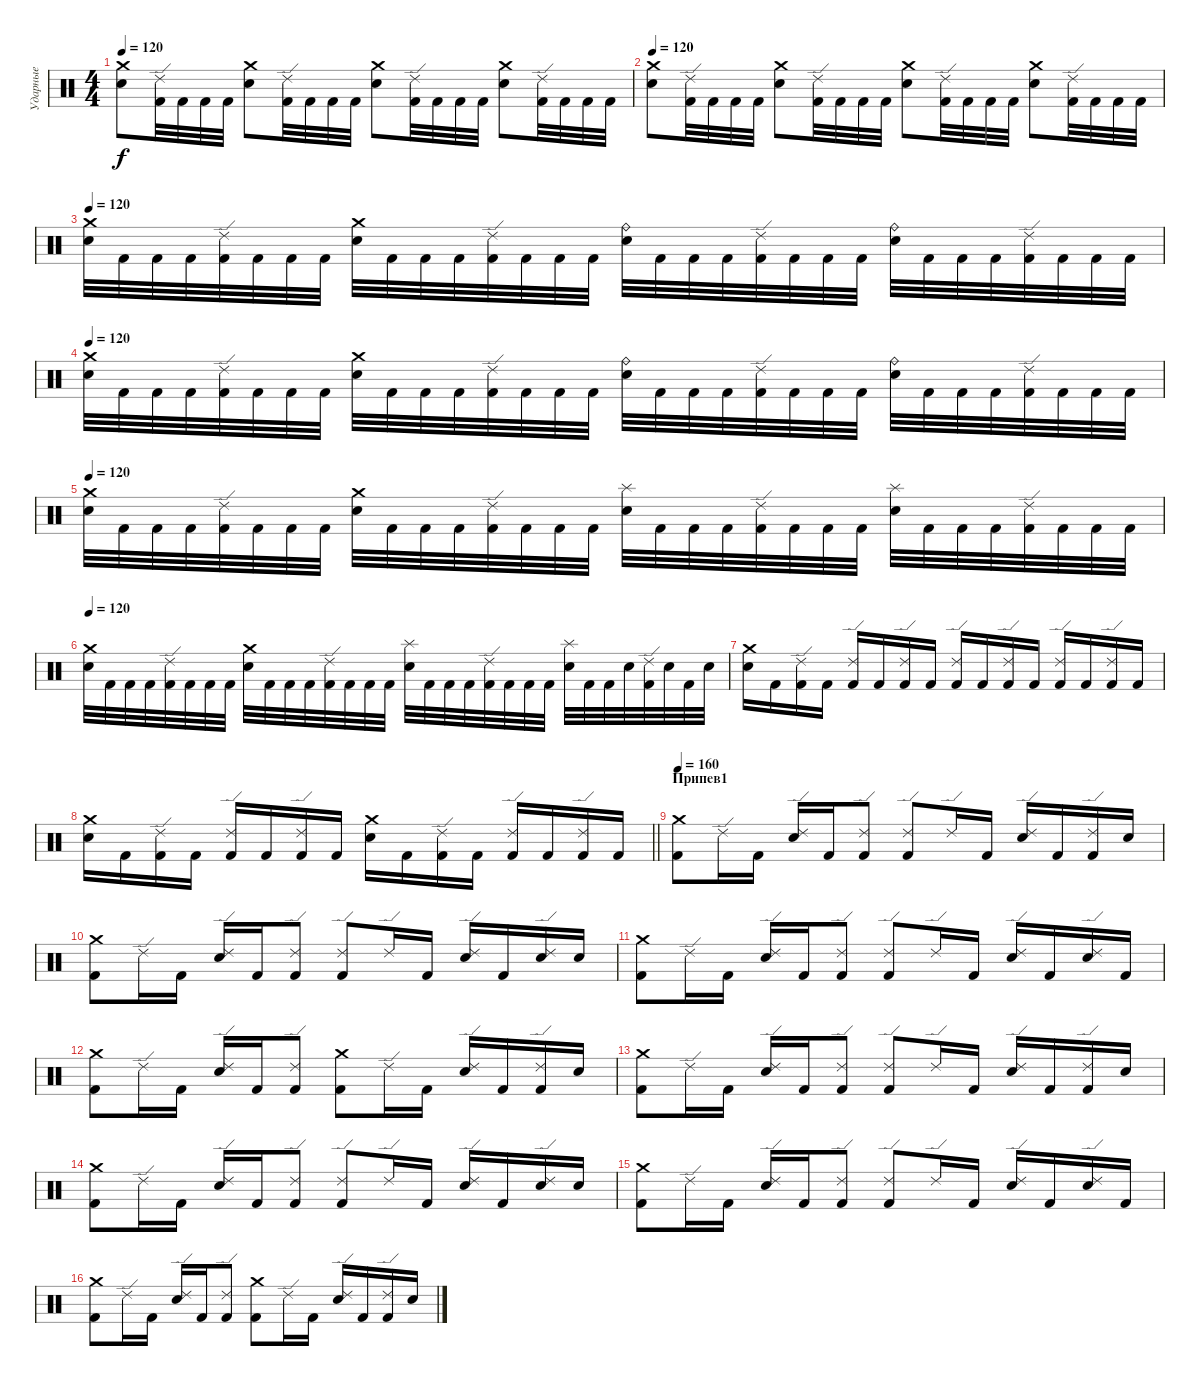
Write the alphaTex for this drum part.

\track ("Ударные" "Ударные") {instrument percussion}
\staff {score}
\articulation defaults
\ts (4 4)
\tempo 120
\clef neutral
\ks c
("Crash medium (hit)" "Electric Snare (hit)").8{dy f} ("Ride (edge) 2" "Kick (hit) 2").32 "Kick (hit) 2".32 "Kick (hit) 2".32 "Kick (hit) 2".32 ("Crash medium (hit)" "Electric Snare (hit)").8 ("Ride (edge) 2" "Kick (hit) 2").32 "Kick (hit) 2".32 "Kick (hit) 2".32 "Kick (hit) 2".32 ("Crash medium (hit)" "Electric Snare (hit)").8 ("Ride (edge) 2" "Kick (hit) 2").32 "Kick (hit) 2".32 "Kick (hit) 2".32 "Kick (hit) 2".32 ("Crash medium (hit)" "Electric Snare (hit)").8 ("Ride (edge) 2" "Kick (hit) 2").32 "Kick (hit) 2".32 "Kick (hit) 2".32 "Kick (hit) 2".32 |
\tempo 120
("Crash medium (hit)" "Electric Snare (hit)").8 ("Ride (edge) 2" "Kick (hit) 2").32 "Kick (hit) 2".32 "Kick (hit) 2".32 "Kick (hit) 2".32 ("Crash medium (hit)" "Electric Snare (hit)").8 ("Ride (edge) 2" "Kick (hit) 2").32 "Kick (hit) 2".32 "Kick (hit) 2".32 "Kick (hit) 2".32 ("Crash medium (hit)" "Electric Snare (hit)").8 ("Ride (edge) 2" "Kick (hit) 2").32 "Kick (hit) 2".32 "Kick (hit) 2".32 "Kick (hit) 2".32 ("Crash medium (hit)" "Electric Snare (hit)").8 ("Ride (edge) 2" "Kick (hit) 2").32 "Kick (hit) 2".32 "Kick (hit) 2".32 "Kick (hit) 2".32 |
\tempo 120
("Crash medium (hit)" "Electric Snare (hit)").32 "Kick (hit) 2".32 "Kick (hit) 2".32 "Kick (hit) 2".32 ("Ride (edge) 2" "Kick (hit) 2").32 "Kick (hit) 2".32 "Kick (hit) 2".32 "Kick (hit) 2".32 ("Crash medium (hit)" "Electric Snare (hit)").32 "Kick (hit) 2".32 "Kick (hit) 2".32 "Kick (hit) 2".32 ("Ride (edge) 2" "Kick (hit) 2").32 "Kick (hit) 2".32 "Kick (hit) 2".32 "Kick (hit) 2".32 ("Ride (bell)" "Electric Snare (hit)").32 "Kick (hit) 2".32 "Kick (hit) 2".32 "Kick (hit) 2".32 ("Ride (edge) 2" "Kick (hit) 2").32 "Kick (hit) 2".32 "Kick (hit) 2".32 "Kick (hit) 2".32 ("Ride (bell)" "Electric Snare (hit)").32 "Kick (hit) 2".32 "Kick (hit) 2".32 "Kick (hit) 2".32 ("Ride (edge) 2" "Kick (hit) 2").32 "Kick (hit) 2".32 "Kick (hit) 2".32 "Kick (hit) 2".32 |
\tempo 120
("Crash medium (hit)" "Electric Snare (hit)").32 "Kick (hit) 2".32 "Kick (hit) 2".32 "Kick (hit) 2".32 ("Ride (edge) 2" "Kick (hit) 2").32 "Kick (hit) 2".32 "Kick (hit) 2".32 "Kick (hit) 2".32 ("Crash medium (hit)" "Electric Snare (hit)").32 "Kick (hit) 2".32 "Kick (hit) 2".32 "Kick (hit) 2".32 ("Ride (edge) 2" "Kick (hit) 2").32 "Kick (hit) 2".32 "Kick (hit) 2".32 "Kick (hit) 2".32 ("Ride (bell)" "Electric Snare (hit)").32 "Kick (hit) 2".32 "Kick (hit) 2".32 "Kick (hit) 2".32 ("Ride (edge) 2" "Kick (hit) 2").32 "Kick (hit) 2".32 "Kick (hit) 2".32 "Kick (hit) 2".32 ("Ride (bell)" "Electric Snare (hit)").32 "Kick (hit) 2".32 "Kick (hit) 2".32 "Kick (hit) 2".32 ("Ride (edge) 2" "Kick (hit) 2").32 "Kick (hit) 2".32 "Kick (hit) 2".32 "Kick (hit) 2".32 |
\tempo 120
("Crash medium (hit)" "Electric Snare (hit)").32 "Kick (hit) 2".32 "Kick (hit) 2".32 "Kick (hit) 2".32 ("Ride (edge) 2" "Kick (hit) 2").32 "Kick (hit) 2".32 "Kick (hit) 2".32 "Kick (hit) 2".32 ("Crash medium (hit)" "Electric Snare (hit)").32 "Kick (hit) 2".32 "Kick (hit) 2".32 "Kick (hit) 2".32 ("Ride (edge) 2" "Kick (hit) 2").32 "Kick (hit) 2".32 "Kick (hit) 2".32 "Kick (hit) 2".32 ("Splash (hit)" "Electric Snare (hit)").32 "Kick (hit) 2".32 "Kick (hit) 2".32 "Kick (hit) 2".32 ("Ride (edge) 2" "Kick (hit) 2").32 "Kick (hit) 2".32 "Kick (hit) 2".32 "Kick (hit) 2".32 ("Splash (hit)" "Electric Snare (hit)").32 "Kick (hit) 2".32 "Kick (hit) 2".32 "Kick (hit) 2".32 ("Ride (edge) 2" "Kick (hit) 2").32 "Kick (hit) 2".32 "Kick (hit) 2".32 "Kick (hit) 2".32 |
\tempo 120
("Crash medium (hit)" "Electric Snare (hit)").32 "Kick (hit) 2".32 "Kick (hit) 2".32 "Kick (hit) 2".32 ("Ride (edge) 2" "Kick (hit) 2").32 "Kick (hit) 2".32 "Kick (hit) 2".32 "Kick (hit) 2".32 ("Crash medium (hit)" "Electric Snare (hit)").32 "Kick (hit) 2".32 "Kick (hit) 2".32 "Kick (hit) 2".32 ("Ride (edge) 2" "Kick (hit) 2").32 "Kick (hit) 2".32 "Kick (hit) 2".32 "Kick (hit) 2".32 ("Splash (hit)" "Electric Snare (hit)").32 "Kick (hit) 2".32 "Kick (hit) 2".32 "Kick (hit) 2".32 ("Ride (edge) 2" "Kick (hit) 2").32 "Kick (hit) 2".32 "Kick (hit) 2".32 "Kick (hit) 2".32 ("Splash (hit)" "Electric Snare (hit)").32 "Kick (hit) 2".32 "Kick (hit) 2".32 "Electric Snare (hit)".32 ("Ride (edge) 2" "Kick (hit) 2").32 "Electric Snare (hit)".32 "Kick (hit) 2".32 "Electric Snare (hit)".32 |
("Crash medium (hit)" "Electric Snare (hit)").16 "Kick (hit) 2".16 ("Ride (edge) 2" "Kick (hit) 2").16 "Kick (hit) 2".16 ("Ride (edge) 2" "Kick (hit) 2").16 "Kick (hit) 2".16 ("Ride (edge) 2" "Kick (hit) 2").16 "Kick (hit) 2".16 ("Ride (edge) 2" "Kick (hit) 2").16 "Kick (hit) 2".16 ("Ride (edge) 2" "Kick (hit) 2").16 "Kick (hit) 2".16 ("Ride (edge) 2" "Kick (hit) 2").16 "Kick (hit) 2".16 ("Ride (edge) 2" "Kick (hit) 2").16 "Kick (hit) 2".16 |
\barLineRight lightlight
("Crash medium (hit)" "Electric Snare (hit)").16 "Kick (hit) 2".16 ("Ride (edge) 2" "Kick (hit) 2").16 "Kick (hit) 2".16 ("Ride (edge) 2" "Kick (hit) 2").16 "Kick (hit) 2".16 ("Ride (edge) 2" "Kick (hit) 2").16 "Kick (hit) 2".16 ("Crash medium (hit)" "Electric Snare (hit)").16 "Kick (hit) 2".16 ("Ride (edge) 2" "Kick (hit) 2").16 "Kick (hit) 2".16 ("Ride (edge) 2" "Kick (hit) 2").16 "Kick (hit) 2".16 ("Ride (edge) 2" "Kick (hit) 2").16 "Kick (hit) 2".16 |
\section ("" "Припев1")
\tempo 160
("Crash medium (hit)" "Kick (hit) 2").8 "Ride (edge) 2".16 "Kick (hit) 2".16 ("Ride (edge) 2" "Electric Snare (hit)").16 "Kick (hit) 2".16 ("Ride (edge) 2" "Kick (hit) 2").8 ("Ride (edge) 2" "Kick (hit) 2").8 "Ride (edge) 2".16 "Kick (hit) 2".16 ("Ride (edge) 2" "Electric Snare (hit)").16 "Kick (hit) 2".16 ("Ride (edge) 2" "Kick (hit) 2").16 "Electric Snare (hit)".16 |
("Crash medium (hit)" "Kick (hit) 2").8 "Ride (edge) 2".16 "Kick (hit) 2".16 ("Ride (edge) 2" "Electric Snare (hit)").16 "Kick (hit) 2".16 ("Ride (edge) 2" "Kick (hit) 2").8 ("Ride (edge) 2" "Kick (hit) 2").8 "Ride (edge) 2".16 "Kick (hit) 2".16 ("Ride (edge) 2" "Electric Snare (hit)").16 "Kick (hit) 2".16 ("Ride (edge) 2" "Electric Snare (hit)").16 "Electric Snare (hit)".16 |
("Crash medium (hit)" "Kick (hit) 2").8 "Ride (edge) 2".16 "Kick (hit) 2".16 ("Ride (edge) 2" "Electric Snare (hit)").16 "Kick (hit) 2".16 ("Ride (edge) 2" "Kick (hit) 2").8 ("Ride (edge) 2" "Kick (hit) 2").8 "Ride (edge) 2".16 "Kick (hit) 2".16 ("Ride (edge) 2" "Electric Snare (hit)").16 "Kick (hit) 2".16 ("Ride (edge) 2" "Electric Snare (hit)").16 "Kick (hit) 2".16 |
("Crash medium (hit)" "Kick (hit) 2").8 "Ride (edge) 2".16 "Kick (hit) 2".16 ("Ride (edge) 2" "Electric Snare (hit)").16 "Kick (hit) 2".16 ("Ride (edge) 2" "Kick (hit) 2").8 ("Crash medium (hit)" "Kick (hit) 2").8 "Ride (edge) 2".16 "Kick (hit) 2".16 ("Ride (edge) 2" "Electric Snare (hit)").16 "Kick (hit) 2".16 ("Ride (edge) 2" "Kick (hit) 2").16 "Electric Snare (hit)".16 |
("Crash medium (hit)" "Kick (hit) 2").8 "Ride (edge) 2".16 "Kick (hit) 2".16 ("Ride (edge) 2" "Electric Snare (hit)").16 "Kick (hit) 2".16 ("Ride (edge) 2" "Kick (hit) 2").8 ("Ride (edge) 2" "Kick (hit) 2").8 "Ride (edge) 2".16 "Kick (hit) 2".16 ("Ride (edge) 2" "Electric Snare (hit)").16 "Kick (hit) 2".16 ("Ride (edge) 2" "Kick (hit) 2").16 "Electric Snare (hit)".16 |
("Crash medium (hit)" "Kick (hit) 2").8 "Ride (edge) 2".16 "Kick (hit) 2".16 ("Ride (edge) 2" "Electric Snare (hit)").16 "Kick (hit) 2".16 ("Ride (edge) 2" "Kick (hit) 2").8 ("Ride (edge) 2" "Kick (hit) 2").8 "Ride (edge) 2".16 "Kick (hit) 2".16 ("Ride (edge) 2" "Electric Snare (hit)").16 "Kick (hit) 2".16 ("Ride (edge) 2" "Electric Snare (hit)").16 "Electric Snare (hit)".16 |
("Crash medium (hit)" "Kick (hit) 2").8 "Ride (edge) 2".16 "Kick (hit) 2".16 ("Ride (edge) 2" "Electric Snare (hit)").16 "Kick (hit) 2".16 ("Ride (edge) 2" "Kick (hit) 2").8 ("Ride (edge) 2" "Kick (hit) 2").8 "Ride (edge) 2".16 "Kick (hit) 2".16 ("Ride (edge) 2" "Electric Snare (hit)").16 "Kick (hit) 2".16 ("Ride (edge) 2" "Electric Snare (hit)").16 "Kick (hit) 2".16 |
("Crash medium (hit)" "Kick (hit) 2").8 "Ride (edge) 2".16 "Kick (hit) 2".16 ("Ride (edge) 2" "Electric Snare (hit)").16 "Kick (hit) 2".16 ("Ride (edge) 2" "Kick (hit) 2").8 ("Crash medium (hit)" "Kick (hit) 2").8 "Ride (edge) 2".16 "Kick (hit) 2".16 ("Ride (edge) 2" "Electric Snare (hit)").16 "Kick (hit) 2".16 ("Ride (edge) 2" "Kick (hit) 2").16 "Electric Snare (hit)".16
